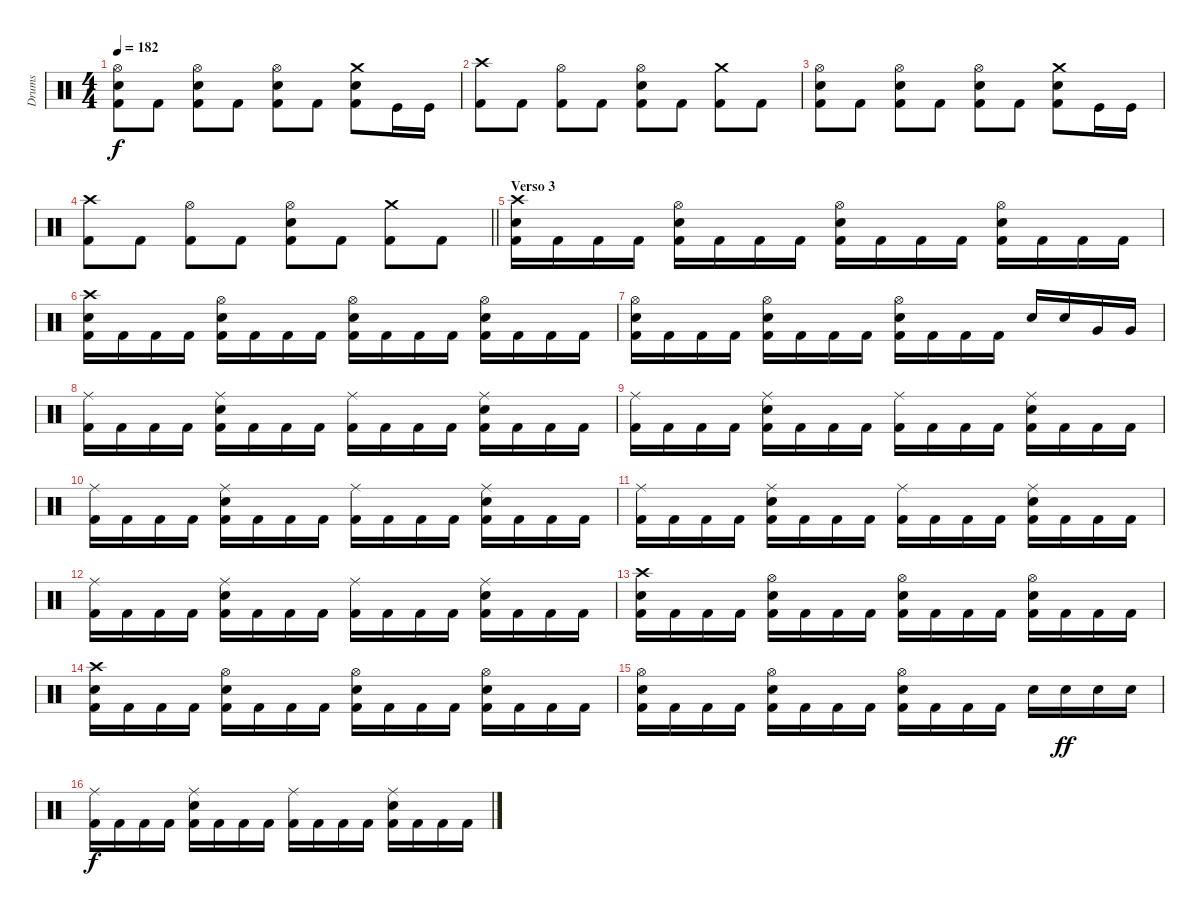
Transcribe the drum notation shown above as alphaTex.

\track ("Drums" "Drums") {instrument percussion}
\staff {score}
\articulation defaults
\ts (4 4)
\tempo 182
\clef neutral
\ks c
("Hi-Hat (open)" "Electric Snare (hit)" "Kick (hit) 2").8{dy f} "Kick (hit) 2".8 ("Hi-Hat (open)" "Electric Snare (hit)" "Kick (hit) 2").8 "Kick (hit) 2".8 ("Hi-Hat (open)" "Electric Snare (hit)" "Kick (hit) 2").8 "Kick (hit) 2".8 ("Crash medium (hit)" "Electric Snare (hit)" "Kick (hit) 2").8 "Kick (hit)".16 "Kick (hit)".16 |
("Crash high (hit)" "Kick (hit) 2").8 "Kick (hit) 2".8 ("Hi-Hat (open)" "Kick (hit) 2").8 "Kick (hit) 2".8 ("Hi-Hat (open)" "Electric Snare (hit)" "Kick (hit) 2").8 "Kick (hit) 2".8 ("Crash medium (hit)" "Kick (hit) 2").8 "Kick (hit) 2".8 |
("Hi-Hat (open)" "Electric Snare (hit)" "Kick (hit) 2").8 "Kick (hit) 2".8 ("Hi-Hat (open)" "Electric Snare (hit)" "Kick (hit) 2").8 "Kick (hit) 2".8 ("Hi-Hat (open)" "Electric Snare (hit)" "Kick (hit) 2").8 "Kick (hit) 2".8 ("Crash medium (hit)" "Electric Snare (hit)" "Kick (hit) 2").8 "Kick (hit)".16 "Kick (hit)".16 |
\barLineRight lightlight
("Crash high (hit)" "Kick (hit) 2").8 "Kick (hit) 2".8 ("Hi-Hat (open)" "Kick (hit) 2").8 "Kick (hit) 2".8 ("Hi-Hat (open)" "Electric Snare (hit)" "Kick (hit) 2").8 "Kick (hit) 2".8 ("Crash medium (hit)" "Kick (hit) 2").8 "Kick (hit) 2".8 |
\section ("" "Verso 3")
("Kick (hit) 2" "Crash high (hit)" "Electric Snare (hit)").16 "Kick (hit) 2".16 "Kick (hit) 2".16 "Kick (hit) 2".16 ("Kick (hit) 2" "Electric Snare (hit)" "Hi-Hat (open)").16 "Kick (hit) 2".16 "Kick (hit) 2".16 "Kick (hit) 2".16 ("Kick (hit) 2" "Electric Snare (hit)" "Hi-Hat (open)").16 "Kick (hit) 2".16 "Kick (hit) 2".16 "Kick (hit) 2".16 ("Kick (hit) 2" "Electric Snare (hit)" "Hi-Hat (open)").16 "Kick (hit) 2".16 "Kick (hit) 2".16 "Kick (hit) 2".16 |
("Kick (hit) 2" "Crash high (hit)" "Electric Snare (hit)").16 "Kick (hit) 2".16 "Kick (hit) 2".16 "Kick (hit) 2".16 ("Kick (hit) 2" "Electric Snare (hit)" "Hi-Hat (open)").16 "Kick (hit) 2".16 "Kick (hit) 2".16 "Kick (hit) 2".16 ("Kick (hit) 2" "Electric Snare (hit)" "Hi-Hat (open)").16 "Kick (hit) 2".16 "Kick (hit) 2".16 "Kick (hit) 2".16 ("Kick (hit) 2" "Electric Snare (hit)" "Hi-Hat (open)").16 "Kick (hit) 2".16 "Kick (hit) 2".16 "Kick (hit) 2".16 |
("Kick (hit) 2" "Hi-Hat (open)" "Electric Snare (hit)").16 "Kick (hit) 2".16 "Kick (hit) 2".16 "Kick (hit) 2".16 ("Kick (hit) 2" "Electric Snare (hit)" "Hi-Hat (open)").16 "Kick (hit) 2".16 "Kick (hit) 2".16 "Kick (hit) 2".16 ("Kick (hit) 2" "Electric Snare (hit)" "Hi-Hat (open)").16 "Kick (hit) 2".16 "Kick (hit) 2".16 "Kick (hit) 2".16 "Electric Snare (hit)".16 "Electric Snare (hit)".16 "Very Low Tom (hit)".16 "Very Low Tom (hit)".16 |
("Ride (middle)" "Kick (hit) 2").16 "Kick (hit) 2".16 "Kick (hit) 2".16 "Kick (hit) 2".16 ("Ride (middle)" "Electric Snare (hit)" "Kick (hit) 2").16 "Kick (hit) 2".16 "Kick (hit) 2".16 "Kick (hit) 2".16 ("Ride (middle)" "Kick (hit) 2").16 "Kick (hit) 2".16 "Kick (hit) 2".16 "Kick (hit) 2".16 ("Ride (middle)" "Electric Snare (hit)" "Kick (hit) 2").16 "Kick (hit) 2".16 "Kick (hit) 2".16 "Kick (hit) 2".16 |
("Ride (middle)" "Kick (hit) 2").16 "Kick (hit) 2".16 "Kick (hit) 2".16 "Kick (hit) 2".16 ("Ride (middle)" "Electric Snare (hit)" "Kick (hit) 2").16 "Kick (hit) 2".16 "Kick (hit) 2".16 "Kick (hit) 2".16 ("Ride (middle)" "Kick (hit) 2").16 "Kick (hit) 2".16 "Kick (hit) 2".16 "Kick (hit) 2".16 ("Ride (middle)" "Electric Snare (hit)" "Kick (hit) 2").16 "Kick (hit) 2".16 "Kick (hit) 2".16 "Kick (hit) 2".16 |
("Ride (middle)" "Kick (hit) 2").16 "Kick (hit) 2".16 "Kick (hit) 2".16 "Kick (hit) 2".16 ("Ride (middle)" "Electric Snare (hit)" "Kick (hit) 2").16 "Kick (hit) 2".16 "Kick (hit) 2".16 "Kick (hit) 2".16 ("Ride (middle)" "Kick (hit) 2").16 "Kick (hit) 2".16 "Kick (hit) 2".16 "Kick (hit) 2".16 ("Ride (middle)" "Electric Snare (hit)" "Kick (hit) 2").16 "Kick (hit) 2".16 "Kick (hit) 2".16 "Kick (hit) 2".16 |
("Ride (middle)" "Kick (hit) 2").16 "Kick (hit) 2".16 "Kick (hit) 2".16 "Kick (hit) 2".16 ("Ride (middle)" "Electric Snare (hit)" "Kick (hit) 2").16 "Kick (hit) 2".16 "Kick (hit) 2".16 "Kick (hit) 2".16 ("Ride (middle)" "Kick (hit) 2").16 "Kick (hit) 2".16 "Kick (hit) 2".16 "Kick (hit) 2".16 ("Ride (middle)" "Electric Snare (hit)" "Kick (hit) 2").16 "Kick (hit) 2".16 "Kick (hit) 2".16 "Kick (hit) 2".16 |
("Ride (middle)" "Kick (hit) 2").16 "Kick (hit) 2".16 "Kick (hit) 2".16 "Kick (hit) 2".16 ("Ride (middle)" "Electric Snare (hit)" "Kick (hit) 2").16 "Kick (hit) 2".16 "Kick (hit) 2".16 "Kick (hit) 2".16 ("Ride (middle)" "Kick (hit) 2").16 "Kick (hit) 2".16 "Kick (hit) 2".16 "Kick (hit) 2".16 ("Ride (middle)" "Electric Snare (hit)" "Kick (hit) 2").16 "Kick (hit) 2".16 "Kick (hit) 2".16 "Kick (hit) 2".16 |
("Kick (hit) 2" "Crash high (hit)" "Electric Snare (hit)").16 "Kick (hit) 2".16 "Kick (hit) 2".16 "Kick (hit) 2".16 ("Kick (hit) 2" "Electric Snare (hit)" "Hi-Hat (open)").16 "Kick (hit) 2".16 "Kick (hit) 2".16 "Kick (hit) 2".16 ("Kick (hit) 2" "Electric Snare (hit)" "Hi-Hat (open)").16 "Kick (hit) 2".16 "Kick (hit) 2".16 "Kick (hit) 2".16 ("Kick (hit) 2" "Electric Snare (hit)" "Hi-Hat (open)").16 "Kick (hit) 2".16 "Kick (hit) 2".16 "Kick (hit) 2".16 |
("Kick (hit) 2" "Crash high (hit)" "Electric Snare (hit)").16 "Kick (hit) 2".16 "Kick (hit) 2".16 "Kick (hit) 2".16 ("Kick (hit) 2" "Electric Snare (hit)" "Hi-Hat (open)").16 "Kick (hit) 2".16 "Kick (hit) 2".16 "Kick (hit) 2".16 ("Kick (hit) 2" "Electric Snare (hit)" "Hi-Hat (open)").16 "Kick (hit) 2".16 "Kick (hit) 2".16 "Kick (hit) 2".16 ("Kick (hit) 2" "Electric Snare (hit)" "Hi-Hat (open)").16 "Kick (hit) 2".16 "Kick (hit) 2".16 "Kick (hit) 2".16 |
("Kick (hit) 2" "Hi-Hat (open)" "Electric Snare (hit)").16 "Kick (hit) 2".16 "Kick (hit) 2".16 "Kick (hit) 2".16 ("Kick (hit) 2" "Electric Snare (hit)" "Hi-Hat (open)").16 "Kick (hit) 2".16 "Kick (hit) 2".16 "Kick (hit) 2".16 ("Kick (hit) 2" "Electric Snare (hit)" "Hi-Hat (open)").16 "Kick (hit) 2".16 "Kick (hit) 2".16 "Kick (hit) 2".16 "Electric Snare (hit)".16 "Electric Snare (hit)".16{dy ff} "Electric Snare (hit)".16 "Electric Snare (hit)".16 |
("Ride (middle)" "Kick (hit) 2").16{dy f} "Kick (hit) 2".16 "Kick (hit) 2".16 "Kick (hit) 2".16 ("Ride (middle)" "Electric Snare (hit)" "Kick (hit) 2").16 "Kick (hit) 2".16 "Kick (hit) 2".16 "Kick (hit) 2".16 ("Ride (middle)" "Kick (hit) 2").16 "Kick (hit) 2".16 "Kick (hit) 2".16 "Kick (hit) 2".16 ("Ride (middle)" "Electric Snare (hit)" "Kick (hit) 2").16 "Kick (hit) 2".16 "Kick (hit) 2".16 "Kick (hit) 2".16
